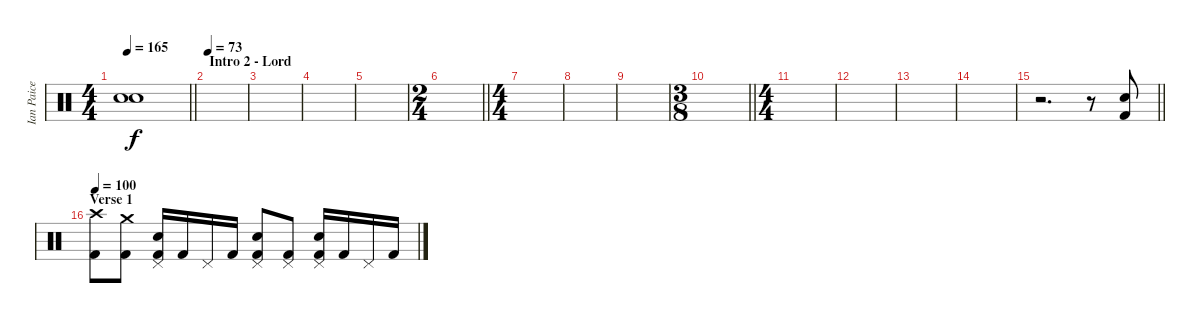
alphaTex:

\track ("Ian Paice - Drums" "Ian Paice ") {instrument percussion}
\staff {score}
\articulation defaults
\ts (4 4)
\tempo 165
\clef neutral
\barLineRight lightlight
\ks c
("Snare (hit)"{t} "Snare (hit)"{t}).1{dy f} |
\section ("" "Intro 2 - Lord")
\tempo 73
|
|
|
|
\ts (2 4)
\barLineRight lightlight
|
\ts (4 4)
|
|
|
\ts (3 8)
\barLineRight lightlight
|
\ts (4 4)
|
|
|
|
\barLineRight lightlight
r.2{d} r.8 ("Kick (hit) 2" "Electric Snare (hit)").8 |
\section ("" "Verse 1")
\tempo 100
("Kick (hit) 2" "Crash high (hit)").8 ("Kick (hit) 2" "Crash medium (hit)").8 ("Kick (hit) 2" "Pedal Hi-Hat (hit)" "Electric Snare (hit)").16 "Kick (hit) 2".16 "Pedal Hi-Hat (hit)".16 "Kick (hit) 2".16 ("Kick (hit) 2" "Pedal Hi-Hat (hit)" "Electric Snare (hit)").8 ("Kick (hit) 2" "Pedal Hi-Hat (hit)").8 ("Kick (hit) 2" "Pedal Hi-Hat (hit)" "Electric Snare (hit)").16 "Kick (hit) 2".16 "Pedal Hi-Hat (hit)".16 "Kick (hit) 2".16
